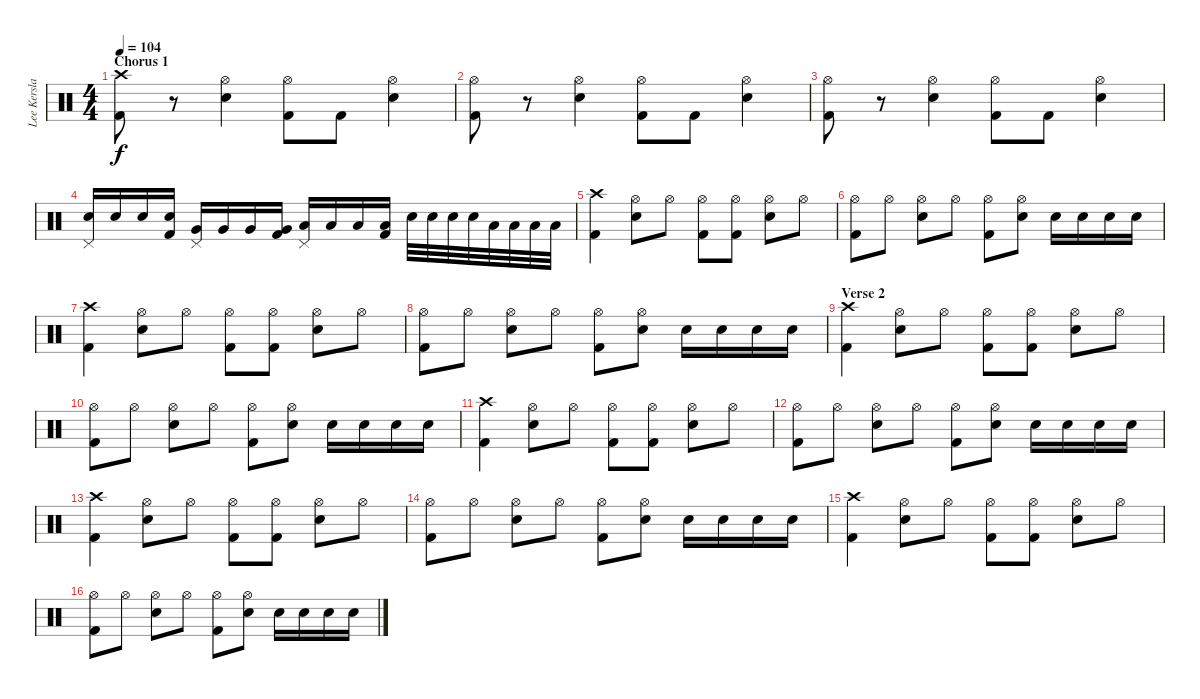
\track ("Lee Kerslake" "Lee Kersla") {instrument percussion}
\staff {score}
\articulation defaults
\ts (4 4)
\section ("" "Chorus 1")
\tempo 104
\clef neutral
\ks c
("Crash high (hit)" "Kick (hit) 2").8{dy f} r.8 ("Hi-Hat (open)" "Electric Snare (hit)").4 ("Hi-Hat (open)" "Kick (hit) 2").8 "Kick (hit) 2".8 ("Hi-Hat (open)" "Electric Snare (hit)").4 |
("Hi-Hat (open)" "Kick (hit) 2").8 r.8 ("Hi-Hat (open)" "Electric Snare (hit)").4 ("Hi-Hat (open)" "Kick (hit) 2").8 "Kick (hit) 2".8 ("Hi-Hat (open)" "Electric Snare (hit)").4 |
("Hi-Hat (open)" "Kick (hit) 2").8 r.8 ("Hi-Hat (open)" "Electric Snare (hit)").4 ("Hi-Hat (open)" "Kick (hit) 2").8 "Kick (hit) 2".8 ("Hi-Hat (open)" "Electric Snare (hit)").4 |
("Electric Snare (hit)" "Pedal Hi-Hat (hit)").16 "Electric Snare (hit)".16 "Electric Snare (hit)".16 ("Electric Snare (hit)" "Kick (hit) 2").16 ("Very Low Tom (hit)" "Pedal Hi-Hat (hit)").16 "Very Low Tom (hit)".16 "Very Low Tom (hit)".16 ("Very Low Tom (hit)" "Kick (hit) 2").16 ("Low Floor Tom (hit)" "Pedal Hi-Hat (hit)").16 "Low Floor Tom (hit)".16 "Low Floor Tom (hit)".16 ("Low Floor Tom (hit)" "Kick (hit) 2").16 "Electric Snare (hit)".32 "Electric Snare (hit)".32 "Electric Snare (hit)".32 "Electric Snare (hit)".32 "Low Floor Tom (hit)".32 "Low Floor Tom (hit)".32 "Low Floor Tom (hit)".32 "Low Floor Tom (hit)".32 |
("Crash high (hit)" "Kick (hit) 2").4 ("Hi-Hat (open)" "Electric Snare (hit)").8 "Hi-Hat (open)".8 ("Hi-Hat (open)" "Kick (hit) 2").8 ("Hi-Hat (open)" "Kick (hit) 2").8 ("Hi-Hat (open)" "Electric Snare (hit)").8 "Hi-Hat (open)".8 |
("Hi-Hat (open)" "Kick (hit) 2").8 "Hi-Hat (open)".8 ("Hi-Hat (open)" "Electric Snare (hit)").8 "Hi-Hat (open)".8 ("Hi-Hat (open)" "Kick (hit) 2").8 ("Hi-Hat (open)" "Electric Snare (hit)").8 "Electric Snare (hit)".16 "Electric Snare (hit)".16 "Electric Snare (hit)".16 "Electric Snare (hit)".16 |
("Crash high (hit)" "Kick (hit) 2").4 ("Hi-Hat (open)" "Electric Snare (hit)").8 "Hi-Hat (open)".8 ("Hi-Hat (open)" "Kick (hit) 2").8 ("Hi-Hat (open)" "Kick (hit) 2").8 ("Hi-Hat (open)" "Electric Snare (hit)").8 "Hi-Hat (open)".8 |
("Hi-Hat (open)" "Kick (hit) 2").8 "Hi-Hat (open)".8 ("Hi-Hat (open)" "Electric Snare (hit)").8 "Hi-Hat (open)".8 ("Hi-Hat (open)" "Kick (hit) 2").8 ("Hi-Hat (open)" "Electric Snare (hit)").8 "Electric Snare (hit)".16 "Electric Snare (hit)".16 "Electric Snare (hit)".16 "Electric Snare (hit)".16 |
\section ("" "Verse 2")
("Crash high (hit)" "Kick (hit) 2").4 ("Hi-Hat (open)" "Electric Snare (hit)").8 "Hi-Hat (open)".8 ("Hi-Hat (open)" "Kick (hit) 2").8 ("Hi-Hat (open)" "Kick (hit) 2").8 ("Hi-Hat (open)" "Electric Snare (hit)").8 "Hi-Hat (open)".8 |
("Hi-Hat (open)" "Kick (hit) 2").8 "Hi-Hat (open)".8 ("Hi-Hat (open)" "Electric Snare (hit)").8 "Hi-Hat (open)".8 ("Hi-Hat (open)" "Kick (hit) 2").8 ("Hi-Hat (open)" "Electric Snare (hit)").8 "Electric Snare (hit)".16 "Electric Snare (hit)".16 "Electric Snare (hit)".16 "Electric Snare (hit)".16 |
("Crash high (hit)" "Kick (hit) 2").4 ("Hi-Hat (open)" "Electric Snare (hit)").8 "Hi-Hat (open)".8 ("Hi-Hat (open)" "Kick (hit) 2").8 ("Hi-Hat (open)" "Kick (hit) 2").8 ("Hi-Hat (open)" "Electric Snare (hit)").8 "Hi-Hat (open)".8 |
("Hi-Hat (open)" "Kick (hit) 2").8 "Hi-Hat (open)".8 ("Hi-Hat (open)" "Electric Snare (hit)").8 "Hi-Hat (open)".8 ("Hi-Hat (open)" "Kick (hit) 2").8 ("Hi-Hat (open)" "Electric Snare (hit)").8 "Electric Snare (hit)".16 "Electric Snare (hit)".16 "Electric Snare (hit)".16 "Electric Snare (hit)".16 |
("Crash high (hit)" "Kick (hit) 2").4 ("Hi-Hat (open)" "Electric Snare (hit)").8 "Hi-Hat (open)".8 ("Hi-Hat (open)" "Kick (hit) 2").8 ("Hi-Hat (open)" "Kick (hit) 2").8 ("Hi-Hat (open)" "Electric Snare (hit)").8 "Hi-Hat (open)".8 |
("Hi-Hat (open)" "Kick (hit) 2").8 "Hi-Hat (open)".8 ("Hi-Hat (open)" "Electric Snare (hit)").8 "Hi-Hat (open)".8 ("Hi-Hat (open)" "Kick (hit) 2").8 ("Hi-Hat (open)" "Electric Snare (hit)").8 "Electric Snare (hit)".16 "Electric Snare (hit)".16 "Electric Snare (hit)".16 "Electric Snare (hit)".16 |
("Crash high (hit)" "Kick (hit) 2").4 ("Hi-Hat (open)" "Electric Snare (hit)").8 "Hi-Hat (open)".8 ("Hi-Hat (open)" "Kick (hit) 2").8 ("Hi-Hat (open)" "Kick (hit) 2").8 ("Hi-Hat (open)" "Electric Snare (hit)").8 "Hi-Hat (open)".8 |
("Hi-Hat (open)" "Kick (hit) 2").8 "Hi-Hat (open)".8 ("Hi-Hat (open)" "Electric Snare (hit)").8 "Hi-Hat (open)".8 ("Hi-Hat (open)" "Kick (hit) 2").8 ("Hi-Hat (open)" "Electric Snare (hit)").8 "Electric Snare (hit)".16 "Electric Snare (hit)".16 "Electric Snare (hit)".16 "Electric Snare (hit)".16
